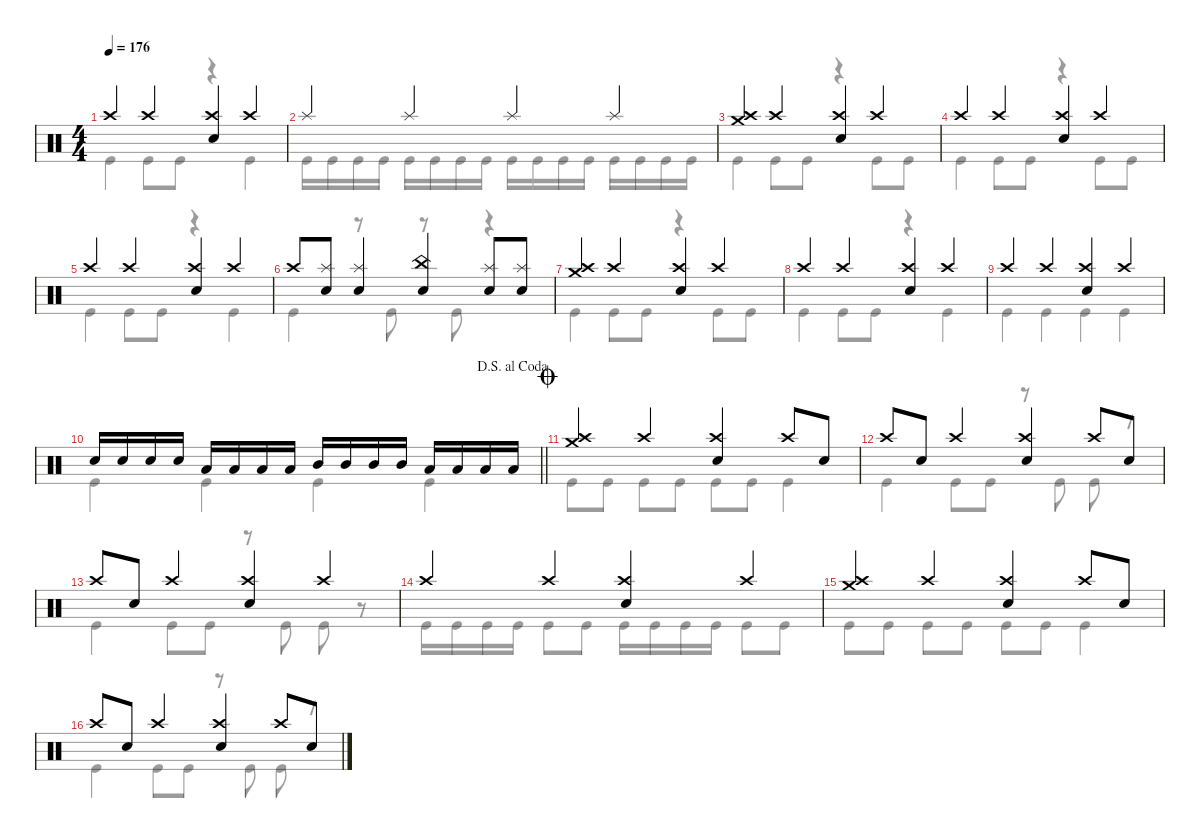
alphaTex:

\defaultSystemsLayout 4
\hideDynamics
\bracketExtendMode nobrackets
\singleTrackTrackNamePolicy hidden
\multiTrackTrackNamePolicy hidden
\firstSystemTrackNameMode fullname
\firstSystemTrackNameOrientation horizontal
\otherSystemsTrackNameOrientation horizontal
\track ("Drums" "drm.") {instrument percussion}
\staff {score}
\articulation defaults
\voice
\ts (4 4)
\tempo 176
\clef neutral
\ks c "Crash high (hit)".4{dy f beam Up} "Crash high (hit)".4{beam Up}
("Crash high (hit)" "Snare (hit) 2").4{beam Up} "Crash high (hit)".4{beam Up} |
"Splash (hit)".4{beam Up} "Splash (hit)".4{beam Up} "Splash (hit)".4{beam Up} "Splash (hit)".4{beam Up} |
("Crash medium (hit)" "Crash high (hit)").4{beam Up} "Crash high (hit)".4{beam Up} ("Crash high (hit)" "Snare (hit) 2").4{beam Up} "Crash high (hit)".4{beam Up} |
"Crash high (hit)".4{beam Up} "Crash high (hit)".4{beam Up} ("Crash high (hit)" "Snare (hit) 2").4{beam Up} "Crash high (hit)".4{beam Up} |
"Crash high (hit)".4{beam Up} "Crash high (hit)".4{beam Up} ("Crash high (hit)" "Snare (hit) 2").4{beam Up} "Crash high (hit)".4{beam Up} |
"Crash high (hit)".8{beam Up} ("Snare (hit) 2" "Splash (hit)").8{beam Up} ("Snare (hit) 2" "Splash (hit)").4{beam Up} ("Snare (hit) 2" "China (hit)").4{beam Up} ("Snare (hit) 2" "Splash (hit)").8{beam Up} ("Snare (hit) 2" "Splash (hit)").8{beam Up} |
("Crash medium (hit)" "Crash high (hit)").4{beam Up} "Crash high (hit)".4{beam Up} ("Crash high (hit)" "Snare (hit) 2").4{beam Up} "Crash high (hit)".4{beam Up} |
"Crash high (hit)".4{beam Up} "Crash high (hit)".4{beam Up} ("Crash high (hit)" "Snare (hit) 2").4{beam Up} "Crash high (hit)".4{beam Up} |
"Crash high (hit)".4{beam Up} "Crash high (hit)".4{beam Up} ("Crash high (hit)" "Snare (hit) 2").4{beam Up} "Crash high (hit)".4{beam Up} |
\jump dalsegnoalcoda
\barLineRight lightlight "Snare (hit) 2".16{beam Up} "Snare (hit) 2".16{beam Up} "Snare (hit) 2".16{beam Up} "Snare (hit) 2".16{beam Up} "Low Tom (hit)".16{beam Up} "Low Tom (hit)".16{beam Up} "Low Tom (hit)".16{beam Up} "Low Tom (hit)".16{beam Up} "Mid Tom (hit)".16{beam Up} "Mid Tom (hit)".16{beam Up} "Mid Tom (hit)".16{beam Up} "Mid Tom (hit)".16{beam Up} "Low Tom (hit)".16{beam Up} "Low Tom (hit)".16{beam Up} "Low Tom (hit)".16{beam Up} "Low Tom (hit)".16{beam Up}
|
\jump coda
("Crash medium (hit)" "Crash high (hit)").4{beam Up} "Crash high (hit)".4{beam Up} ("Crash high (hit)" "Snare (hit) 2").4{beam Up} "Crash high (hit)".8{beam Up} "Snare (hit) 2".8{beam Up} |
"Crash high (hit)".8{beam Up} "Snare (hit) 2".8{beam Up} "Crash high (hit)".4{beam Up} ("Crash high (hit)" "Snare (hit) 2").4{beam Up} "Crash high (hit)".8{beam Up} "Snare (hit) 2".8{beam Up} |
"Crash high (hit)".8{beam Up} "Snare (hit) 2".8{beam Up} "Crash high (hit)".4{beam Up} ("Crash high (hit)" "Snare (hit) 2").4{beam Up} "Crash high (hit)".4{beam Up} |
"Crash high (hit)".4{beam Up} "Crash high (hit)".4{beam Up} ("Crash high (hit)" "Snare (hit) 2").4{beam Up} "Crash high (hit)".4{beam Up} |
("Crash medium (hit)" "Crash high (hit)").4{beam Up} "Crash high (hit)".4{beam Up} ("Crash high (hit)" "Snare (hit) 2").4{beam Up} "Crash high (hit)".8{beam Up} "Snare (hit) 2".8{beam Up} |
"Crash high (hit)".8{beam Up} "Snare (hit) 2".8{beam Up} "Crash high (hit)".4{beam Up} ("Crash high (hit)" "Snare (hit) 2").4{beam Up} "Crash high (hit)".8{beam Up} "Snare (hit) 2".8{beam Up}
\voice
\clef neutral
\ottava regular
\simile none
\ks c "Kick (hit)".4{dy f beam Down} "Kick (hit)".8{beam Down} "Kick (hit)".8{beam Down}
r.4{beam Down} "Kick (hit)".4{beam Down} |
"Kick (hit)".16{beam Down} "Kick (hit)".16{beam Down} "Kick (hit)".16{beam Down} "Kick (hit)".16{beam Down} "Kick (hit)".16{beam Down} "Kick (hit)".16{beam Down} "Kick (hit)".16{beam Down} "Kick (hit)".16{beam Down} "Kick (hit)".16{beam Down} "Kick (hit)".16{beam Down} "Kick (hit)".16{beam Down} "Kick (hit)".16{beam Down} "Kick (hit)".16{beam Down} "Kick (hit)".16{beam Down} "Kick (hit)".16{beam Down} "Kick (hit)".16{beam Down} |
"Kick (hit)".4{beam Down} "Kick (hit)".8{beam Down} "Kick (hit)".8{beam Down} r.4{beam Down} "Kick (hit)".8{beam Down} "Kick (hit)".8{beam Down} |
"Kick (hit)".4{beam Down} "Kick (hit)".8{beam Down} "Kick (hit)".8{beam Down} r.4{beam Down} "Kick (hit)".8{beam Down} "Kick (hit)".8{beam Down} |
"Kick (hit)".4{beam Down} "Kick (hit)".8{beam Down} "Kick (hit)".8{beam Down} r.4{beam Down} "Kick (hit)".4{beam Down} |
"Kick (hit)".4{beam Down} r.8{beam Down} "Kick (hit)".8{beam Down} r.8{beam Down} "Kick (hit)".8{beam Down} r.4{beam Down} |
"Kick (hit)".4{beam Down} "Kick (hit)".8{beam Down} "Kick (hit)".8{beam Down} r.4{beam Down} "Kick (hit)".8{beam Down} "Kick (hit)".8{beam Down} |
"Kick (hit)".4{beam Down} "Kick (hit)".8{beam Down} "Kick (hit)".8{beam Down} r.4{beam Down} "Kick (hit)".4{beam Down} |
"Kick (hit)".4{beam Down} "Kick (hit)".4{beam Down} "Kick (hit)".4{beam Down} "Kick (hit)".4{beam Down} |
\barLineRight lightlight "Kick (hit)".4{beam Down} "Kick (hit)".4{beam Down} "Kick (hit)".4{beam Down} "Kick (hit)".4{beam Down}
|
"Kick (hit)".8{beam Down} "Kick (hit)".8{beam Down} "Kick (hit)".8{beam Down} "Kick (hit)".8{beam Down} "Kick (hit)".8{beam Down} "Kick (hit)".8{beam Down} "Kick (hit)".4{beam Down} |
"Kick (hit)".4{beam Down} "Kick (hit)".8{beam Down} "Kick (hit)".8{beam Down} r.8{beam Down} "Kick (hit)".8{beam Down} "Kick (hit)".8{beam Down} r.8{beam Down} |
"Kick (hit)".4{beam Down} "Kick (hit)".8{beam Down} "Kick (hit)".8{beam Down} r.8{beam Down} "Kick (hit)".8{beam Down} "Kick (hit)".8{beam Down} r.8{beam Down} |
"Kick (hit)".16{beam Down} "Kick (hit)".16{beam Down} "Kick (hit)".16{beam Down} "Kick (hit)".16{beam Down} "Kick (hit)".8{beam Down} "Kick (hit)".8{beam Down} "Kick (hit)".16{beam Down} "Kick (hit)".16{beam Down} "Kick (hit)".16{beam Down} "Kick (hit)".16{beam Down} "Kick (hit)".8{beam Down} "Kick (hit)".8{beam Down} |
"Kick (hit)".8{beam Down} "Kick (hit)".8{beam Down} "Kick (hit)".8{beam Down} "Kick (hit)".8{beam Down} "Kick (hit)".8{beam Down} "Kick (hit)".8{beam Down} "Kick (hit)".4{beam Down} |
"Kick (hit)".4{beam Down} "Kick (hit)".8{beam Down} "Kick (hit)".8{beam Down} r.8{beam Down} "Kick (hit)".8{beam Down} "Kick (hit)".8{beam Down} r.8{beam Down}
